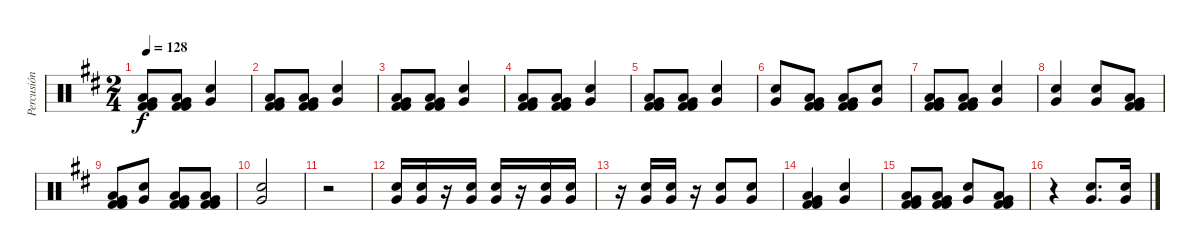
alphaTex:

\track ("Percusión" "Percusión") {instrument percussion}
\staff {score}
\articulation defaults
\ts (2 4)
\tempo 128
\clef neutral
\ks d
("Kick (hit) 2" "Low Floor Tom (hit)" "Kick (hit) 2" "Very Low Tom (hit)").8{dy f} ("Kick (hit) 2" "Low Floor Tom (hit)" "Kick (hit) 2" "Very Low Tom (hit)").8 ("Electric Snare (hit)" "Very Low Tom (hit)").4 |
("Kick (hit) 2" "Low Floor Tom (hit)" "Kick (hit) 2" "Very Low Tom (hit)").8 ("Kick (hit) 2" "Low Floor Tom (hit)" "Kick (hit) 2" "Very Low Tom (hit)").8 ("Electric Snare (hit)" "Very Low Tom (hit)").4 |
("Kick (hit) 2" "Low Floor Tom (hit)" "Kick (hit) 2" "Very Low Tom (hit)").8 ("Kick (hit) 2" "Low Floor Tom (hit)" "Kick (hit) 2" "Very Low Tom (hit)").8 ("Electric Snare (hit)" "Very Low Tom (hit)").4 |
("Kick (hit) 2" "Low Floor Tom (hit)" "Kick (hit) 2" "Very Low Tom (hit)").8 ("Kick (hit) 2" "Low Floor Tom (hit)" "Kick (hit) 2" "Very Low Tom (hit)").8 ("Electric Snare (hit)" "Very Low Tom (hit)").4 |
("Kick (hit) 2" "Low Floor Tom (hit)" "Kick (hit) 2" "Very Low Tom (hit)").8 ("Kick (hit) 2" "Low Floor Tom (hit)" "Kick (hit) 2" "Very Low Tom (hit)").8 ("Electric Snare (hit)" "Very Low Tom (hit)").4 |
("Electric Snare (hit)" "Very Low Tom (hit)").8 ("Kick (hit) 2" "Low Floor Tom (hit)" "Kick (hit) 2" "Very Low Tom (hit)").8 ("Kick (hit) 2" "Low Floor Tom (hit)" "Kick (hit) 2" "Very Low Tom (hit)").8 ("Electric Snare (hit)" "Very Low Tom (hit)").8 |
("Kick (hit) 2" "Low Floor Tom (hit)" "Kick (hit) 2" "Very Low Tom (hit)").8 ("Kick (hit) 2" "Low Floor Tom (hit)" "Kick (hit) 2" "Very Low Tom (hit)").8 ("Electric Snare (hit)" "Very Low Tom (hit)").4 |
("Electric Snare (hit)" "Very Low Tom (hit)").4 ("Electric Snare (hit)" "Very Low Tom (hit)").8 ("Kick (hit) 2" "Low Floor Tom (hit)" "Kick (hit) 2" "Very Low Tom (hit)").8 |
("Kick (hit) 2" "Low Floor Tom (hit)" "Kick (hit) 2" "Very Low Tom (hit)").8 ("Electric Snare (hit)" "Very Low Tom (hit)").8 ("Kick (hit) 2" "Low Floor Tom (hit)" "Kick (hit) 2" "Very Low Tom (hit)").8 ("Kick (hit) 2" "Low Floor Tom (hit)" "Kick (hit) 2" "Very Low Tom (hit)").8 |
("Electric Snare (hit)" "Very Low Tom (hit)").2 |
r.2 |
("Electric Snare (hit)" "Very Low Tom (hit)").16 ("Electric Snare (hit)" "Very Low Tom (hit)").16 r.16 ("Electric Snare (hit)" "Very Low Tom (hit)").16 ("Electric Snare (hit)" "Very Low Tom (hit)").16 r.16 ("Electric Snare (hit)" "Very Low Tom (hit)").16 ("Electric Snare (hit)" "Very Low Tom (hit)").16 |
r.16 ("Electric Snare (hit)" "Very Low Tom (hit)").16 ("Electric Snare (hit)" "Very Low Tom (hit)").16 r.16 ("Electric Snare (hit)" "Very Low Tom (hit)").8 ("Electric Snare (hit)" "Very Low Tom (hit)").8 |
("Kick (hit) 2" "Low Floor Tom (hit)" "Kick (hit) 2" "Very Low Tom (hit)").4 ("Electric Snare (hit)" "Very Low Tom (hit)").4 |
("Kick (hit) 2" "Low Floor Tom (hit)" "Kick (hit) 2" "Very Low Tom (hit)").8 ("Kick (hit) 2" "Low Floor Tom (hit)" "Kick (hit) 2" "Very Low Tom (hit)").8 ("Electric Snare (hit)" "Very Low Tom (hit)").8 ("Kick (hit) 2" "Low Floor Tom (hit)" "Kick (hit) 2" "Very Low Tom (hit)").8 |
r.4 ("Electric Snare (hit)" "Very Low Tom (hit)").8{d} ("Electric Snare (hit)" "Very Low Tom (hit)").16
